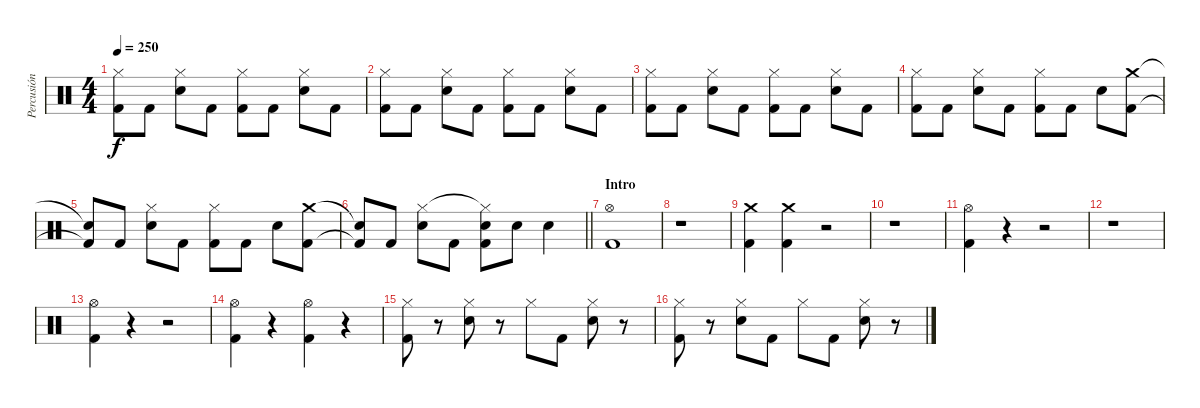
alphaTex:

\track ("Percusión" "Percusión") {instrument percussion}
\staff {score}
\articulation defaults
\ts (4 4)
\tempo 250
\clef neutral
\ks c
("Hi-Hat (closed)" "Kick (hit) 2").8{dy f} "Kick (hit) 2".8 ("Electric Snare (hit)" "Hi-Hat (closed)").8 "Kick (hit) 2".8 ("Hi-Hat (closed)" "Kick (hit) 2").8 "Kick (hit) 2".8 ("Electric Snare (hit)" "Hi-Hat (closed)").8 "Kick (hit) 2".8 |
("Hi-Hat (closed)" "Kick (hit) 2").8 "Kick (hit) 2".8 ("Electric Snare (hit)" "Hi-Hat (closed)").8 "Kick (hit) 2".8 ("Hi-Hat (closed)" "Kick (hit) 2").8 "Kick (hit) 2".8 ("Electric Snare (hit)" "Hi-Hat (closed)").8 "Kick (hit) 2".8 |
("Hi-Hat (closed)" "Kick (hit) 2").8 "Kick (hit) 2".8 ("Electric Snare (hit)" "Hi-Hat (closed)").8 "Kick (hit) 2".8 ("Hi-Hat (closed)" "Kick (hit) 2").8 "Kick (hit) 2".8 ("Electric Snare (hit)" "Hi-Hat (closed)").8 "Kick (hit) 2".8 |
("Hi-Hat (closed)" "Kick (hit) 2").8 "Kick (hit) 2".8 ("Electric Snare (hit)" "Hi-Hat (closed)").8 "Kick (hit) 2".8 ("Hi-Hat (closed)" "Kick (hit) 2").8 "Kick (hit) 2".8 "Electric Snare (hit)".8 ("Crash medium (hit)" "Kick (hit) 2").8 |
("Snare (hit)"{t} "Kick (hit) 2"{t}).8 "Kick (hit) 2".8 ("Electric Snare (hit)" "Hi-Hat (closed)").8 "Kick (hit) 2".8 ("Hi-Hat (closed)" "Kick (hit) 2").8 "Kick (hit) 2".8 "Electric Snare (hit)".8 ("Crash medium (hit)" "Kick (hit) 2").8 |
\barLineRight lightlight
("Snare (hit)"{t} "Kick (hit) 2"{t}).8 "Kick (hit) 2".8 ("Electric Snare (hit)" "Hi-Hat (closed)").8 "Kick (hit) 2".8 ("Electric Snare (hit)" "Hi-Hat (closed)"{t} "Kick (hit) 2").8 "Electric Snare (hit)".8 "Electric Snare (hit)".4 |
\section ("" "Intro")
("Hi-Hat (open)" "Kick (hit) 2").1 |
r.1 |
("Crash medium (hit)" "Kick (hit) 2").4 ("Crash medium (hit)" "Kick (hit) 2").4 r.2 |
r.1 |
("Hi-Hat (open)" "Kick (hit) 2").4 r.4 r.2 |
r.1 |
("Hi-Hat (open)" "Kick (hit) 2").4 r.4 r.2 |
("Hi-Hat (open)" "Kick (hit) 2").4 r.4 ("Hi-Hat (open)" "Kick (hit) 2").4 r.4 |
("Hi-Hat (closed)" "Kick (hit) 2").8 r.8 ("Electric Snare (hit)" "Hi-Hat (closed)").8 r.8 "Hi-Hat (closed)".8 "Kick (hit) 2".8 ("Electric Snare (hit)" "Hi-Hat (closed)").8 r.8 |
("Hi-Hat (closed)" "Kick (hit) 2").8 r.8 ("Electric Snare (hit)" "Hi-Hat (closed)").8 "Kick (hit) 2".8 "Hi-Hat (closed)".8 "Kick (hit) 2".8 ("Electric Snare (hit)" "Hi-Hat (closed)").8 r.8
